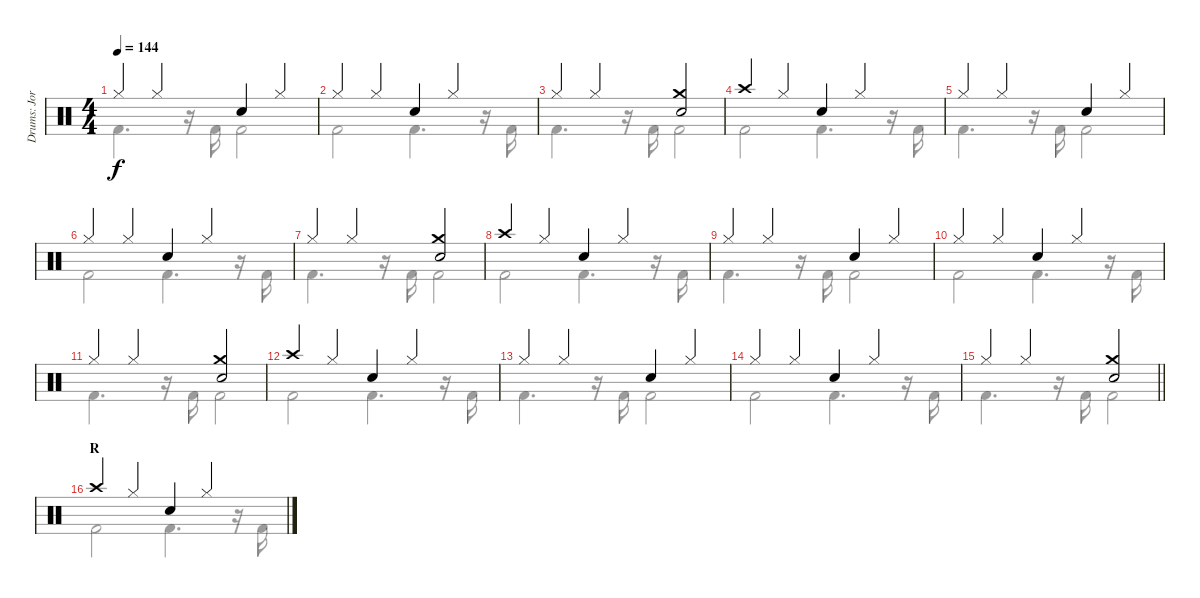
\track ("Drums: Jorg" "Drums: Jor") {instrument percussion}
\staff {score}
\articulation defaults
\voice
\ts (4 4)
\tempo 144
\clef neutral
\ks c "Hi-Hat (closed)".4{dy f} "Hi-Hat (closed)".4 "Snare (hit) 2".4 "Hi-Hat (closed)".4
|
"Hi-Hat (closed)".4 "Hi-Hat (closed)".4 "Snare (hit) 2".4 "Hi-Hat (closed)".4 |
"Hi-Hat (closed)".4 "Hi-Hat (closed)".4 ("Crash medium (hit)" "Snare (hit) 2").2 |
"Crash high (hit)".4 "Hi-Hat (closed)".4 "Snare (hit) 2".4 "Hi-Hat (closed)".4 |
"Hi-Hat (closed)".4 "Hi-Hat (closed)".4 "Snare (hit) 2".4 "Hi-Hat (closed)".4 |
"Hi-Hat (closed)".4 "Hi-Hat (closed)".4 "Snare (hit) 2".4 "Hi-Hat (closed)".4 |
"Hi-Hat (closed)".4 "Hi-Hat (closed)".4 ("Crash medium (hit)" "Snare (hit) 2").2 |
"Crash high (hit)".4 "Hi-Hat (closed)".4 "Snare (hit) 2".4 "Hi-Hat (closed)".4 |
"Hi-Hat (closed)".4 "Hi-Hat (closed)".4 "Snare (hit) 2".4 "Hi-Hat (closed)".4 |
"Hi-Hat (closed)".4 "Hi-Hat (closed)".4 "Snare (hit) 2".4 "Hi-Hat (closed)".4 |
"Hi-Hat (closed)".4 "Hi-Hat (closed)".4 ("Crash medium (hit)" "Snare (hit) 2").2 |
"Crash high (hit)".4 "Hi-Hat (closed)".4 "Snare (hit) 2".4 "Hi-Hat (closed)".4 |
"Hi-Hat (closed)".4 "Hi-Hat (closed)".4 "Snare (hit) 2".4 "Hi-Hat (closed)".4 |
"Hi-Hat (closed)".4 "Hi-Hat (closed)".4 "Snare (hit) 2".4 "Hi-Hat (closed)".4 |
\barLineRight lightlight "Hi-Hat (closed)".4 "Hi-Hat (closed)".4
("Crash medium (hit)" "Snare (hit) 2").2 |
\section ("" "R")
"Crash high (hit)".4 "Hi-Hat (closed)".4 "Snare (hit) 2".4 "Hi-Hat (closed)".4
\voice
\clef neutral
\ottava regular
\simile none
\ks c "Kick (hit) 2".4{d dy f}
r.16 "Kick (hit) 2".16 "Kick (hit) 2".2 |
"Kick (hit) 2".2 "Kick (hit) 2".4{d} r.16 "Kick (hit) 2".16 |
"Kick (hit) 2".4{d} r.16 "Kick (hit) 2".16 "Kick (hit) 2".2 |
"Kick (hit) 2".2 "Kick (hit) 2".4{d} r.16 "Kick (hit) 2".16 |
"Kick (hit) 2".4{d} r.16 "Kick (hit) 2".16 "Kick (hit) 2".2 |
"Kick (hit) 2".2 "Kick (hit) 2".4{d} r.16 "Kick (hit) 2".16 |
"Kick (hit) 2".4{d} r.16 "Kick (hit) 2".16 "Kick (hit) 2".2 |
"Kick (hit) 2".2 "Kick (hit) 2".4{d} r.16 "Kick (hit) 2".16 |
"Kick (hit) 2".4{d} r.16 "Kick (hit) 2".16 "Kick (hit) 2".2 |
"Kick (hit) 2".2 "Kick (hit) 2".4{d} r.16 "Kick (hit) 2".16 |
"Kick (hit) 2".4{d} r.16 "Kick (hit) 2".16 "Kick (hit) 2".2 |
"Kick (hit) 2".2 "Kick (hit) 2".4{d} r.16 "Kick (hit) 2".16 |
"Kick (hit) 2".4{d} r.16 "Kick (hit) 2".16 "Kick (hit) 2".2 |
"Kick (hit) 2".2 "Kick (hit) 2".4{d} r.16 "Kick (hit) 2".16 |
\barLineRight lightlight "Kick (hit) 2".4{d}
r.16 "Kick (hit) 2".16 "Kick (hit) 2".2 |
"Kick (hit) 2".2 "Kick (hit) 2".4{d} r.16 "Kick (hit) 2".16
